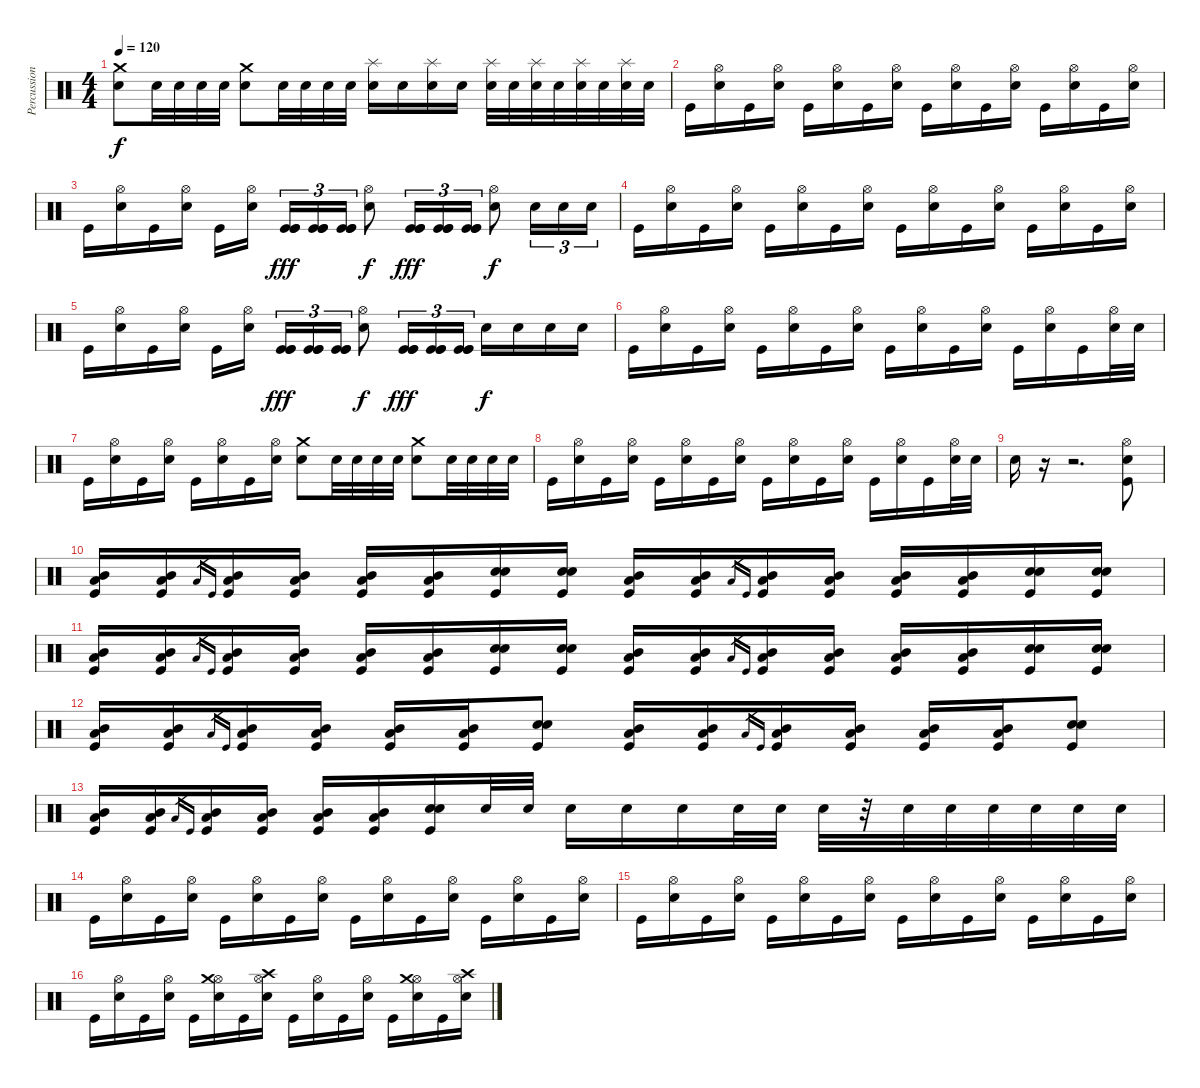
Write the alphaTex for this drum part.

\track ("Percussioni" "Percussion") {instrument percussion}
\staff {score}
\articulation defaults
\ts (4 4)
\tempo 120
\clef neutral
\ks c
("Crash medium (hit)" "Electric Snare (hit)").8{dy f} "Electric Snare (hit)".32 "Electric Snare (hit)".32 "Electric Snare (hit)".32 "Electric Snare (hit)".32 ("Crash medium (hit)" "Electric Snare (hit)").8 "Electric Snare (hit)".32 "Electric Snare (hit)".32 "Electric Snare (hit)".32 "Electric Snare (hit)".32 ("Splash (hit)" "Electric Snare (hit)").16 "Electric Snare (hit)".16 ("Splash (hit)" "Electric Snare (hit)").16 "Electric Snare (hit)".16 ("Splash (hit)" "Electric Snare (hit)").32 "Electric Snare (hit)".32 ("Splash (hit)" "Electric Snare (hit)").32 "Electric Snare (hit)".32 ("Splash (hit)" "Electric Snare (hit)").32 "Electric Snare (hit)".32 ("Splash (hit)" "Electric Snare (hit)").32 "Electric Snare (hit)".32 |
"Kick (hit)".16 ("Hi-Hat (open)" "Electric Snare (hit)").16 "Kick (hit)".16 ("Hi-Hat (open)" "Electric Snare (hit)").16 "Kick (hit)".16 ("Hi-Hat (open)" "Electric Snare (hit)").16 "Kick (hit)".16 ("Hi-Hat (open)" "Electric Snare (hit)").16 "Kick (hit)".16 ("Hi-Hat (open)" "Electric Snare (hit)").16 "Kick (hit)".16 ("Hi-Hat (open)" "Electric Snare (hit)").16 "Kick (hit)".16 ("Hi-Hat (open)" "Electric Snare (hit)").16 "Kick (hit)".16 ("Hi-Hat (open)" "Electric Snare (hit)").16 |
"Kick (hit)".16 ("Hi-Hat (open)" "Electric Snare (hit)").16 "Kick (hit)".16 ("Hi-Hat (open)" "Electric Snare (hit)").16 "Kick (hit)".16 ("Hi-Hat (open)" "Electric Snare (hit)").16 ("Kick (hit)" "Kick (hit)" "Kick (hit)").16{tu (3 2) dy fff} ("Kick (hit)" "Kick (hit)" "Kick (hit)").16{tu (3 2)} ("Kick (hit)" "Kick (hit)" "Kick (hit)").16{tu (3 2)} ("Hi-Hat (open)" "Electric Snare (hit)").8{dy f} ("Kick (hit)" "Kick (hit)" "Kick (hit)").16{tu (3 2) dy fff} ("Kick (hit)" "Kick (hit)" "Kick (hit)").16{tu (3 2)} ("Kick (hit)" "Kick (hit)" "Kick (hit)").16{tu (3 2)} ("Hi-Hat (open)" "Electric Snare (hit)").8{dy f} "Electric Snare (hit)".16{tu (3 2)} "Electric Snare (hit)".16{tu (3 2)} "Electric Snare (hit)".16{tu (3 2)} |
"Kick (hit)".16 ("Hi-Hat (open)" "Electric Snare (hit)").16 "Kick (hit)".16 ("Hi-Hat (open)" "Electric Snare (hit)").16 "Kick (hit)".16 ("Hi-Hat (open)" "Electric Snare (hit)").16 "Kick (hit)".16 ("Hi-Hat (open)" "Electric Snare (hit)").16 "Kick (hit)".16 ("Hi-Hat (open)" "Electric Snare (hit)").16 "Kick (hit)".16 ("Hi-Hat (open)" "Electric Snare (hit)").16 "Kick (hit)".16 ("Hi-Hat (open)" "Electric Snare (hit)").16 "Kick (hit)".16 ("Hi-Hat (open)" "Electric Snare (hit)").16 |
"Kick (hit)".16 ("Hi-Hat (open)" "Electric Snare (hit)").16 "Kick (hit)".16 ("Hi-Hat (open)" "Electric Snare (hit)").16 "Kick (hit)".16 ("Hi-Hat (open)" "Electric Snare (hit)").16 ("Kick (hit)" "Kick (hit)" "Kick (hit)").16{tu (3 2) dy fff} ("Kick (hit)" "Kick (hit)" "Kick (hit)").16{tu (3 2)} ("Kick (hit)" "Kick (hit)" "Kick (hit)").16{tu (3 2)} ("Hi-Hat (open)" "Electric Snare (hit)").8{dy f} ("Kick (hit)" "Kick (hit)" "Kick (hit)").16{tu (3 2) dy fff} ("Kick (hit)" "Kick (hit)" "Kick (hit)").16{tu (3 2)} ("Kick (hit)" "Kick (hit)" "Kick (hit)").16{tu (3 2)} "Electric Snare (hit)".16{dy f} "Electric Snare (hit)".16 "Electric Snare (hit)".16 "Electric Snare (hit)".16 |
"Kick (hit)".16 ("Hi-Hat (open)" "Electric Snare (hit)").16 "Kick (hit)".16 ("Hi-Hat (open)" "Electric Snare (hit)").16 "Kick (hit)".16 ("Hi-Hat (open)" "Electric Snare (hit)").16 "Kick (hit)".16 ("Hi-Hat (open)" "Electric Snare (hit)").16 "Kick (hit)".16 ("Hi-Hat (open)" "Electric Snare (hit)").16 "Kick (hit)".16 ("Hi-Hat (open)" "Electric Snare (hit)").16 "Kick (hit)".16 ("Hi-Hat (open)" "Electric Snare (hit)").16 "Kick (hit)".16 ("Hi-Hat (open)" "Electric Snare (hit)").32 "Electric Snare (hit)".32 |
"Kick (hit)".16 ("Hi-Hat (open)" "Electric Snare (hit)").16 "Kick (hit)".16 ("Hi-Hat (open)" "Electric Snare (hit)").16 "Kick (hit)".16 ("Hi-Hat (open)" "Electric Snare (hit)").16 "Kick (hit)".16 ("Hi-Hat (open)" "Electric Snare (hit)").16 ("Crash medium (hit)" "Electric Snare (hit)").8 "Electric Snare (hit)".32 "Electric Snare (hit)".32 "Electric Snare (hit)".32 "Electric Snare (hit)".32 ("Crash medium (hit)" "Electric Snare (hit)").8 "Electric Snare (hit)".32 "Electric Snare (hit)".32 "Electric Snare (hit)".32 "Electric Snare (hit)".32 |
"Kick (hit)".16 ("Hi-Hat (open)" "Electric Snare (hit)").16 "Kick (hit)".16 ("Hi-Hat (open)" "Electric Snare (hit)").16 "Kick (hit)".16 ("Hi-Hat (open)" "Electric Snare (hit)").16 "Kick (hit)".16 ("Hi-Hat (open)" "Electric Snare (hit)").16 "Kick (hit)".16 ("Hi-Hat (open)" "Electric Snare (hit)").16 "Kick (hit)".16 ("Hi-Hat (open)" "Electric Snare (hit)").16 "Kick (hit)".16 ("Hi-Hat (open)" "Electric Snare (hit)").16 "Kick (hit)".16 ("Hi-Hat (open)" "Electric Snare (hit)").32 "Electric Snare (hit)".32 |
"Electric Snare (hit)".16 r.16 r.2{d} ("Hi-Hat (open)" "Electric Snare (hit)" "Kick (hit)").8 |
("Mid Tom (hit)" "Low Tom (hit)" "Kick (hit)").16 ("Mid Tom (hit)" "Low Tom (hit)" "Kick (hit)").16 "Low Tom (hit)".16{gr} "Kick (hit)".16{gr} ("Mid Tom (hit)" "Low Tom (hit)" "Kick (hit)").16 ("Mid Tom (hit)" "Low Tom (hit)" "Kick (hit)").16 ("Mid Tom (hit)" "Low Tom (hit)" "Kick (hit)").16 ("Mid Tom (hit)" "Low Tom (hit)" "Kick (hit)").16 ("Electric Snare (hit)" "Electric Snare (hit)" "Kick (hit)").16 ("Electric Snare (hit)" "Electric Snare (hit)" "Kick (hit)").16 ("Mid Tom (hit)" "Low Tom (hit)" "Kick (hit)").16 ("Mid Tom (hit)" "Low Tom (hit)" "Kick (hit)").16 "Low Tom (hit)".16{gr} "Kick (hit)".16{gr} ("Mid Tom (hit)" "Low Tom (hit)" "Kick (hit)").16 ("Mid Tom (hit)" "Low Tom (hit)" "Kick (hit)").16 ("Mid Tom (hit)" "Low Tom (hit)" "Kick (hit)").16 ("Mid Tom (hit)" "Low Tom (hit)" "Kick (hit)").16 ("Electric Snare (hit)" "Electric Snare (hit)" "Kick (hit)").16 ("Electric Snare (hit)" "Electric Snare (hit)" "Kick (hit)").16 |
("Mid Tom (hit)" "Low Tom (hit)" "Kick (hit)").16 ("Mid Tom (hit)" "Low Tom (hit)" "Kick (hit)").16 "Low Tom (hit)".16{gr} "Kick (hit)".16{gr} ("Mid Tom (hit)" "Low Tom (hit)" "Kick (hit)").16 ("Mid Tom (hit)" "Low Tom (hit)" "Kick (hit)").16 ("Mid Tom (hit)" "Low Tom (hit)" "Kick (hit)").16 ("Mid Tom (hit)" "Low Tom (hit)" "Kick (hit)").16 ("Electric Snare (hit)" "Electric Snare (hit)" "Kick (hit)").16 ("Electric Snare (hit)" "Electric Snare (hit)" "Kick (hit)").16 ("Mid Tom (hit)" "Low Tom (hit)" "Kick (hit)").16 ("Mid Tom (hit)" "Low Tom (hit)" "Kick (hit)").16 "Low Tom (hit)".16{gr} "Kick (hit)".16{gr} ("Mid Tom (hit)" "Low Tom (hit)" "Kick (hit)").16 ("Mid Tom (hit)" "Low Tom (hit)" "Kick (hit)").16 ("Mid Tom (hit)" "Low Tom (hit)" "Kick (hit)").16 ("Mid Tom (hit)" "Low Tom (hit)" "Kick (hit)").16 ("Electric Snare (hit)" "Electric Snare (hit)" "Kick (hit)").16 ("Electric Snare (hit)" "Electric Snare (hit)" "Kick (hit)").16 |
("Mid Tom (hit)" "Low Tom (hit)" "Kick (hit)").16 ("Mid Tom (hit)" "Low Tom (hit)" "Kick (hit)").16 "Low Tom (hit)".16{gr} "Kick (hit)".16{gr} ("Mid Tom (hit)" "Low Tom (hit)" "Kick (hit)").16 ("Mid Tom (hit)" "Low Tom (hit)" "Kick (hit)").16 ("Mid Tom (hit)" "Low Tom (hit)" "Kick (hit)").16 ("Mid Tom (hit)" "Low Tom (hit)" "Kick (hit)").16 ("Electric Snare (hit)" "Electric Snare (hit)" "Kick (hit)").8 ("Mid Tom (hit)" "Low Tom (hit)" "Kick (hit)").16 ("Mid Tom (hit)" "Low Tom (hit)" "Kick (hit)").16 "Low Tom (hit)".16{gr} "Kick (hit)".16{gr} ("Mid Tom (hit)" "Low Tom (hit)" "Kick (hit)").16 ("Mid Tom (hit)" "Low Tom (hit)" "Kick (hit)").16 ("Mid Tom (hit)" "Low Tom (hit)" "Kick (hit)").16 ("Mid Tom (hit)" "Low Tom (hit)" "Kick (hit)").16 ("Electric Snare (hit)" "Electric Snare (hit)" "Kick (hit)").8 |
("Mid Tom (hit)" "Low Tom (hit)" "Kick (hit)").16 ("Mid Tom (hit)" "Low Tom (hit)" "Kick (hit)").16 "Low Tom (hit)".16{gr} "Kick (hit)".16{gr} ("Mid Tom (hit)" "Low Tom (hit)" "Kick (hit)").16 ("Mid Tom (hit)" "Low Tom (hit)" "Kick (hit)").16 ("Mid Tom (hit)" "Low Tom (hit)" "Kick (hit)").16 ("Mid Tom (hit)" "Low Tom (hit)" "Kick (hit)").16 ("Electric Snare (hit)" "Electric Snare (hit)" "Kick (hit)").16 "Electric Snare (hit)".32 "Electric Snare (hit)".32 "Electric Snare (hit)".16 "Electric Snare (hit)".16 "Electric Snare (hit)".16 "Electric Snare (hit)".32 "Electric Snare (hit)".32 "Electric Snare (hit)".32 r.32 "Electric Snare (hit)".32 "Electric Snare (hit)".32 "Electric Snare (hit)".32 "Electric Snare (hit)".32 "Electric Snare (hit)".32 "Electric Snare (hit)".32 |
"Kick (hit)".16 ("Hi-Hat (open)" "Electric Snare (hit)").16 "Kick (hit)".16 ("Hi-Hat (open)" "Electric Snare (hit)").16 "Kick (hit)".16 ("Hi-Hat (open)" "Electric Snare (hit)").16 "Kick (hit)".16 ("Hi-Hat (open)" "Electric Snare (hit)").16 "Kick (hit)".16 ("Hi-Hat (open)" "Electric Snare (hit)").16 "Kick (hit)".16 ("Hi-Hat (open)" "Electric Snare (hit)").16 "Kick (hit)".16 ("Hi-Hat (open)" "Electric Snare (hit)").16 "Kick (hit)".16 ("Hi-Hat (open)" "Electric Snare (hit)").16 |
"Kick (hit)".16 ("Hi-Hat (open)" "Electric Snare (hit)").16 "Kick (hit)".16 ("Hi-Hat (open)" "Electric Snare (hit)").16 "Kick (hit)".16 ("Hi-Hat (open)" "Electric Snare (hit)").16 "Kick (hit)".16 ("Hi-Hat (open)" "Electric Snare (hit)").16 "Kick (hit)".16 ("Hi-Hat (open)" "Electric Snare (hit)").16 "Kick (hit)".16 ("Hi-Hat (open)" "Electric Snare (hit)").16 "Kick (hit)".16 ("Hi-Hat (open)" "Electric Snare (hit)").16 "Kick (hit)".16 ("Hi-Hat (open)" "Electric Snare (hit)").16 |
"Kick (hit)".16 ("Hi-Hat (open)" "Electric Snare (hit)").16 "Kick (hit)".16 ("Hi-Hat (open)" "Electric Snare (hit)").16 "Kick (hit)".16 ("Hi-Hat (open)" "Crash medium (hit)" "Electric Snare (hit)").16 "Kick (hit)".16 ("Hi-Hat (open)" "Crash high (hit)" "Electric Snare (hit)").16 "Kick (hit)".16 ("Hi-Hat (open)" "Electric Snare (hit)").16 "Kick (hit)".16 ("Hi-Hat (open)" "Electric Snare (hit)").16 "Kick (hit)".16 ("Hi-Hat (open)" "Crash medium (hit)" "Electric Snare (hit)").16 "Kick (hit)".16 ("Hi-Hat (open)" "Crash high (hit)" "Electric Snare (hit)").16
